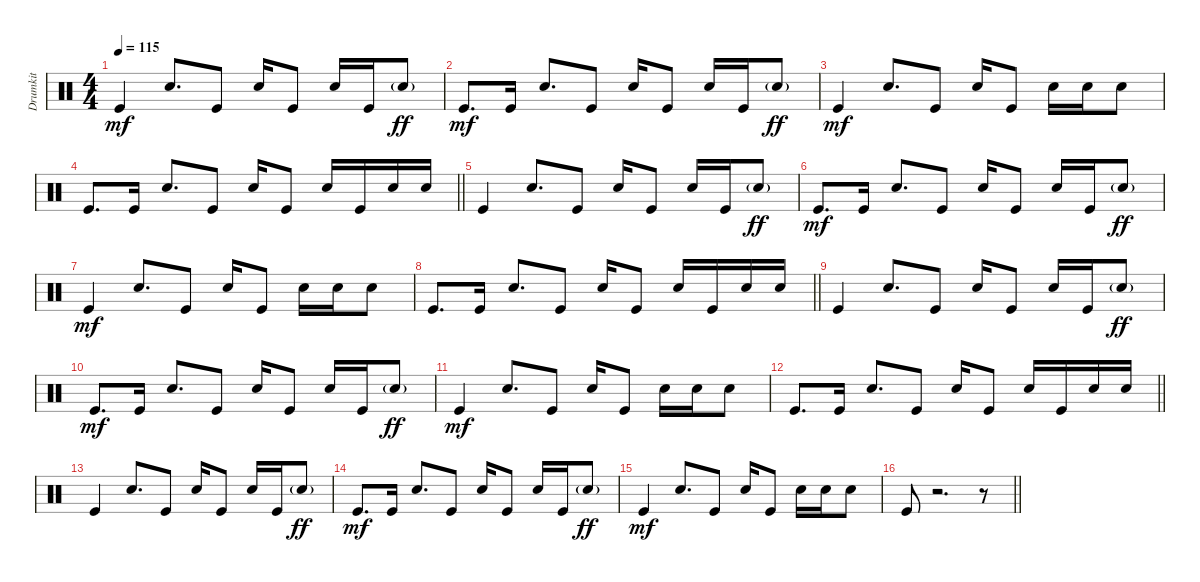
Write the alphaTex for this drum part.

\track ("Drumkit" "Drumkit") {instrument percussion}
\staff {score}
\articulation defaults
\ts (4 4)
\tempo 115
\clef neutral
\ks c "Kick (hit)".4{dy mf} "Snare (hit) 2".8{d} "Kick (hit)".8 "Snare (hit) 2".16 "Kick (hit)".8 "Snare (hit) 2".16 "Kick (hit)".16 "Snare (hit) 2"{g}.8{dy ff}
|
"Kick (hit)".8{d dy mf} "Kick (hit)".16 "Snare (hit) 2".8{d} "Kick (hit)".8 "Snare (hit) 2".16 "Kick (hit)".8 "Snare (hit) 2".16 "Kick (hit)".16 "Snare (hit) 2"{g}.8{dy ff} |
"Kick (hit)".4{dy mf} "Snare (hit) 2".8{d} "Kick (hit)".8 "Snare (hit) 2".16 "Kick (hit)".8 "Snare (hit) 2".16 "Snare (hit) 2".16 "Snare (hit) 2".8 |
\barLineRight lightlight "Kick (hit)".8{d} "Kick (hit)".16 "Snare (hit) 2".8{d} "Kick (hit)".8 "Snare (hit) 2".16 "Kick (hit)".8 "Snare (hit) 2".16 "Kick (hit)".16 "Snare (hit) 2".16 "Snare (hit) 2".16
|
"Kick (hit)".4 "Snare (hit) 2".8{d} "Kick (hit)".8 "Snare (hit) 2".16 "Kick (hit)".8 "Snare (hit) 2".16 "Kick (hit)".16 "Snare (hit) 2"{g}.8{dy ff} |
"Kick (hit)".8{d dy mf} "Kick (hit)".16 "Snare (hit) 2".8{d} "Kick (hit)".8 "Snare (hit) 2".16 "Kick (hit)".8 "Snare (hit) 2".16 "Kick (hit)".16 "Snare (hit) 2"{g}.8{dy ff} |
"Kick (hit)".4{dy mf} "Snare (hit) 2".8{d} "Kick (hit)".8 "Snare (hit) 2".16 "Kick (hit)".8 "Snare (hit) 2".16 "Snare (hit) 2".16 "Snare (hit) 2".8 |
\barLineRight lightlight "Kick (hit)".8{d} "Kick (hit)".16 "Snare (hit) 2".8{d} "Kick (hit)".8 "Snare (hit) 2".16 "Kick (hit)".8 "Snare (hit) 2".16 "Kick (hit)".16 "Snare (hit) 2".16 "Snare (hit) 2".16
|
"Kick (hit)".4 "Snare (hit) 2".8{d} "Kick (hit)".8 "Snare (hit) 2".16 "Kick (hit)".8 "Snare (hit) 2".16 "Kick (hit)".16 "Snare (hit) 2"{g}.8{dy ff} |
"Kick (hit)".8{d dy mf} "Kick (hit)".16 "Snare (hit) 2".8{d} "Kick (hit)".8 "Snare (hit) 2".16 "Kick (hit)".8 "Snare (hit) 2".16 "Kick (hit)".16 "Snare (hit) 2"{g}.8{dy ff} |
"Kick (hit)".4{dy mf} "Snare (hit) 2".8{d} "Kick (hit)".8 "Snare (hit) 2".16 "Kick (hit)".8 "Snare (hit) 2".16 "Snare (hit) 2".16 "Snare (hit) 2".8 |
\barLineRight lightlight "Kick (hit)".8{d} "Kick (hit)".16 "Snare (hit) 2".8{d} "Kick (hit)".8 "Snare (hit) 2".16 "Kick (hit)".8 "Snare (hit) 2".16 "Kick (hit)".16 "Snare (hit) 2".16 "Snare (hit) 2".16
|
"Kick (hit)".4 "Snare (hit) 2".8{d} "Kick (hit)".8 "Snare (hit) 2".16 "Kick (hit)".8 "Snare (hit) 2".16 "Kick (hit)".16 "Snare (hit) 2"{g}.8{dy ff} |
"Kick (hit)".8{d dy mf} "Kick (hit)".16 "Snare (hit) 2".8{d} "Kick (hit)".8 "Snare (hit) 2".16 "Kick (hit)".8 "Snare (hit) 2".16 "Kick (hit)".16 "Snare (hit) 2"{g}.8{dy ff} |
"Kick (hit)".4{dy mf} "Snare (hit) 2".8{d} "Kick (hit)".8 "Snare (hit) 2".16 "Kick (hit)".8 "Snare (hit) 2".16 "Snare (hit) 2".16 "Snare (hit) 2".8 |
\barLineRight lightlight "Kick (hit)".8
r.2{d} r.8
